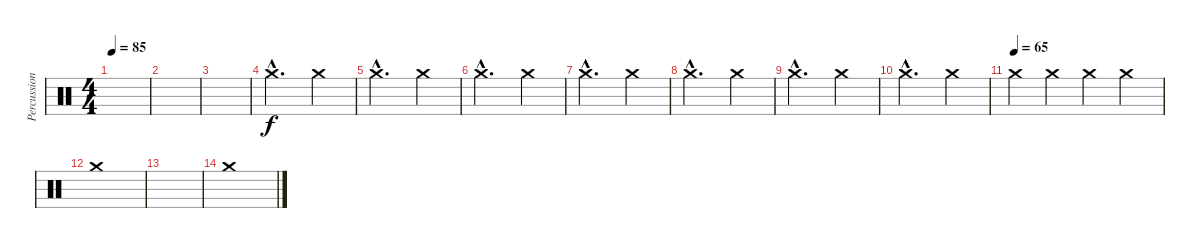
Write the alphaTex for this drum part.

\track ("Percussion" "Percussion") {instrument percussion}
\staff {score}
\articulation defaults
\ts (4 4)
\tempo 85
\clef neutral
\ks c
|
|
|
"Crash medium (hit)"{hac}.2{d} "Crash medium (hit)".4 |
"Crash medium (hit)"{hac}.2{d} "Crash medium (hit)".4 |
"Crash medium (hit)"{hac}.2{d} "Crash medium (hit)".4 |
"Crash medium (hit)"{hac}.2{d} "Crash medium (hit)".4 |
"Crash medium (hit)"{hac}.2{d} "Crash medium (hit)".4 |
"Crash medium (hit)"{hac}.2{d} "Crash medium (hit)".4 |
"Crash medium (hit)"{hac}.2{d} "Crash medium (hit)".4 |
\tempo (65)
"Crash medium (hit)".4 "Crash medium (hit)".4 "Crash medium (hit)".4 "Crash medium (hit)".4 |
"Crash medium (hit)".1 |
|
"Crash medium (hit)".1
